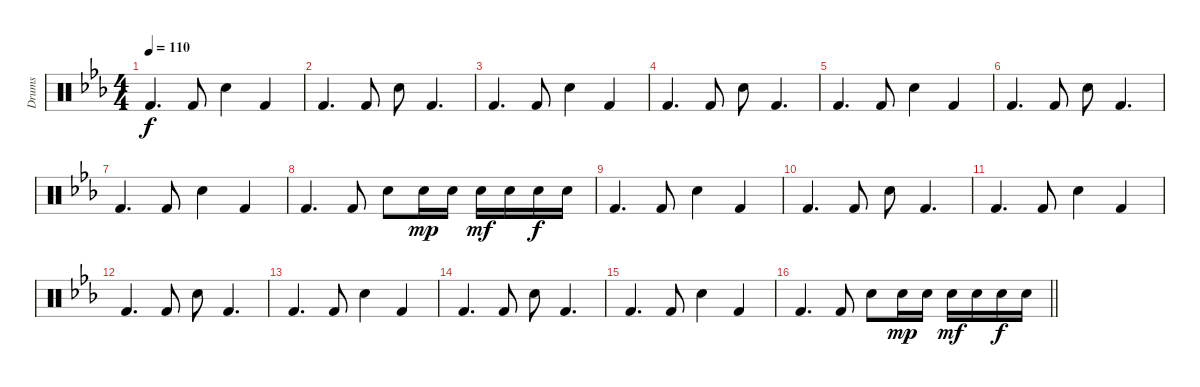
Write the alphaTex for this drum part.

\track ("Drums" "Drums") {instrument percussion}
\staff {score}
\articulation defaults
\ts (4 4)
\tempo 110
\clef neutral
\ks cminor "Kick (hit) 2".4{d dy f} "Kick (hit) 2".8 "Snare (hit) 2".4 "Kick (hit) 2".4
|
"Kick (hit) 2".4{d} "Kick (hit) 2".8 "Snare (hit) 2".8 "Kick (hit) 2".4{d} |
"Kick (hit) 2".4{d} "Kick (hit) 2".8 "Snare (hit) 2".4 "Kick (hit) 2".4 |
"Kick (hit) 2".4{d} "Kick (hit) 2".8 "Snare (hit) 2".8 "Kick (hit) 2".4{d} |
"Kick (hit) 2".4{d} "Kick (hit) 2".8 "Snare (hit) 2".4 "Kick (hit) 2".4 |
"Kick (hit) 2".4{d} "Kick (hit) 2".8 "Snare (hit) 2".8 "Kick (hit) 2".4{d} |
"Kick (hit) 2".4{d} "Kick (hit) 2".8 "Snare (hit) 2".4 "Kick (hit) 2".4 |
"Kick (hit) 2".4{d} "Kick (hit) 2".8 "Snare (hit) 2".8 "Electric Snare (hit)".16{dy mp} "Electric Snare (hit)".16 "Electric Snare (hit)".16{dy mf} "Electric Snare (hit)".16 "Electric Snare (hit)".16{dy f} "Electric Snare (hit)".16 |
"Kick (hit) 2".4{d} "Kick (hit) 2".8 "Snare (hit) 2".4 "Kick (hit) 2".4 |
"Kick (hit) 2".4{d} "Kick (hit) 2".8 "Snare (hit) 2".8 "Kick (hit) 2".4{d} |
"Kick (hit) 2".4{d} "Kick (hit) 2".8 "Snare (hit) 2".4 "Kick (hit) 2".4 |
"Kick (hit) 2".4{d} "Kick (hit) 2".8 "Snare (hit) 2".8 "Kick (hit) 2".4{d} |
"Kick (hit) 2".4{d} "Kick (hit) 2".8 "Snare (hit) 2".4 "Kick (hit) 2".4 |
"Kick (hit) 2".4{d} "Kick (hit) 2".8 "Snare (hit) 2".8 "Kick (hit) 2".4{d} |
"Kick (hit) 2".4{d} "Kick (hit) 2".8 "Snare (hit) 2".4 "Kick (hit) 2".4 |
\barLineRight lightlight "Kick (hit) 2".4{d} "Kick (hit) 2".8 "Snare (hit) 2".8 "Electric Snare (hit)".16{dy mp} "Electric Snare (hit)".16 "Electric Snare (hit)".16{dy mf} "Electric Snare (hit)".16 "Electric Snare (hit)".16{dy f} "Electric Snare (hit)".16
